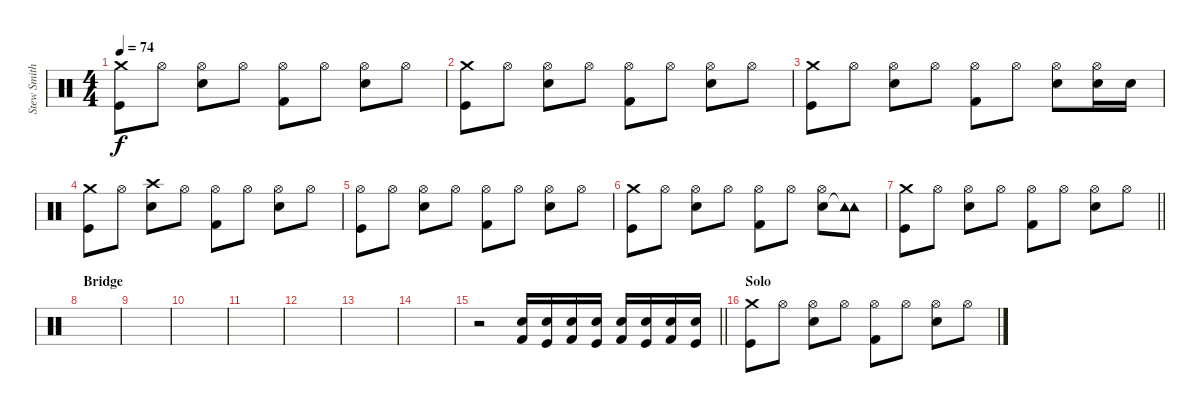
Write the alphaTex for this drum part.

\track ("Stew Smith" "Stew Smith") {instrument percussion}
\staff {score}
\articulation defaults
\ts (4 4)
\tempo 74
\clef neutral
\ks c
("Crash medium (hit)" "Kick (hit)").8{dy f} "Hi-Hat (open)".8 ("Hi-Hat (open)" "Electric Snare (hit)").8 "Hi-Hat (open)".8 ("Hi-Hat (open)" "Kick (hit) 2").8 "Hi-Hat (open)".8 ("Hi-Hat (open)" "Electric Snare (hit)").8 "Hi-Hat (open)".8 |
("Crash medium (hit)" "Kick (hit)").8 "Hi-Hat (open)".8 ("Hi-Hat (open)" "Electric Snare (hit)").8 "Hi-Hat (open)".8 ("Hi-Hat (open)" "Kick (hit) 2").8 "Hi-Hat (open)".8 ("Hi-Hat (open)" "Electric Snare (hit)").8 "Hi-Hat (open)".8 |
("Crash medium (hit)" "Kick (hit)").8 "Hi-Hat (open)".8 ("Hi-Hat (open)" "Electric Snare (hit)").8 "Hi-Hat (open)".8 ("Hi-Hat (open)" "Kick (hit) 2").8 "Hi-Hat (open)".8 ("Hi-Hat (open)" "Electric Snare (hit)").8 ("Hi-Hat (open)" "Snare (hit) 2").16 "Electric Snare (hit)".16 |
("Crash medium (hit)" "Kick (hit)").8 "Hi-Hat (open)".8 ("Crash high (hit)" "Electric Snare (hit)").8 "Hi-Hat (open)".8 ("Hi-Hat (open)" "Kick (hit) 2").8 "Hi-Hat (open)".8 ("Hi-Hat (open)" "Electric Snare (hit)").8 "Hi-Hat (open)".8 |
("Hi-Hat (open)" "Kick (hit)").8 "Hi-Hat (open)".8 ("Hi-Hat (open)" "Electric Snare (hit)").8 "Hi-Hat (open)".8 ("Hi-Hat (open)" "Kick (hit) 2").8 "Hi-Hat (open)".8 ("Hi-Hat (open)" "Electric Snare (hit)").8 "Hi-Hat (open)".8 |
("Crash medium (hit)" "Kick (hit)").8 "Hi-Hat (open)".8 ("Hi-Hat (open)" "Electric Snare (hit)").8 "Hi-Hat (open)".8 ("Hi-Hat (open)" "Kick (hit) 2").8 "Hi-Hat (open)".8 ("Hi-Hat (open)" "Electric Snare (hit)").8 ("Tambourine (hit)" "Tambourine (hit)"{t}).8 |
\barLineRight lightlight
("Crash medium (hit)" "Kick (hit)").8 "Hi-Hat (open)".8 ("Hi-Hat (open)" "Electric Snare (hit)").8 "Hi-Hat (open)".8 ("Hi-Hat (open)" "Kick (hit) 2").8 "Hi-Hat (open)".8 ("Hi-Hat (open)" "Electric Snare (hit)").8 "Hi-Hat (open)".8 |
\section ("" "Bridge")
|
|
|
|
|
|
|
\barLineRight lightlight
r.2 ("Electric Snare (hit)" "Kick (hit) 2").16{volume 9} ("Snare (hit) 2" "Kick (hit)").16 ("Electric Snare (hit)" "Kick (hit) 2").16 ("Snare (hit) 2" "Kick (hit)").16 ("Electric Snare (hit)" "Kick (hit) 2").16 ("Snare (hit) 2" "Kick (hit)").16 ("Electric Snare (hit)" "Kick (hit) 2").16 ("Snare (hit) 2" "Kick (hit)").16 |
\section ("" "Solo")
("Crash medium (hit)" "Kick (hit)").8 "Hi-Hat (open)".8 ("Hi-Hat (open)" "Electric Snare (hit)").8 "Hi-Hat (open)".8 ("Hi-Hat (open)" "Kick (hit) 2").8 "Hi-Hat (open)".8 ("Hi-Hat (open)" "Electric Snare (hit)").8 "Hi-Hat (open)".8
